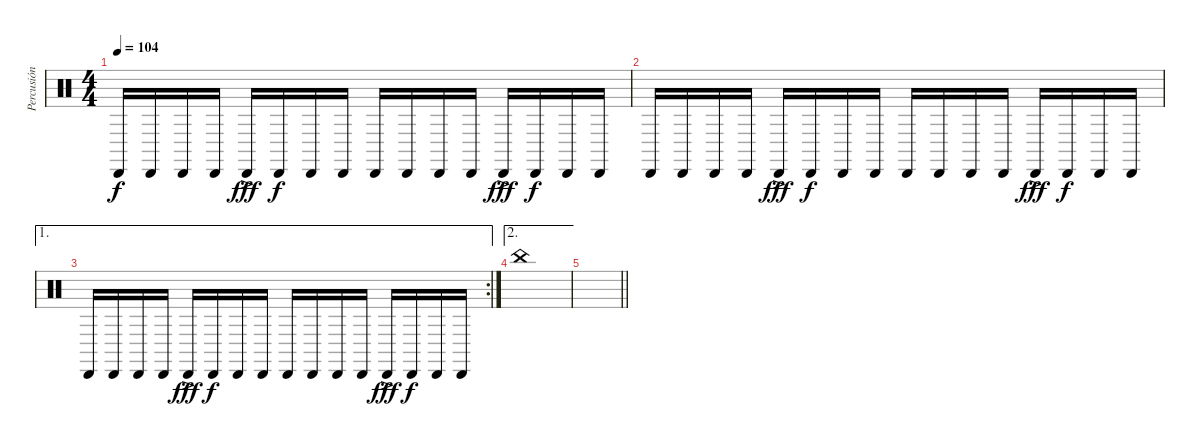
\track ("Percusión" "Percusión") {instrument percussion}
\staff {score}
\articulation defaults
\ts (4 4)
\tempo 104
\clef neutral
\ks c "Cabasa (hit)".16{dy f} "Cabasa (hit)".16 "Cabasa (hit)".16 "Cabasa (hit)".16 "Cabasa (hit)"{ac}.16{dy fff} "Cabasa (hit)".16{dy f} "Cabasa (hit)".16 "Cabasa (hit)".16 "Cabasa (hit)".16 "Cabasa (hit)".16 "Cabasa (hit)".16 "Cabasa (hit)".16 "Cabasa (hit)"{ac}.16{dy fff} "Cabasa (hit)".16{dy f} "Cabasa (hit)".16 "Cabasa (hit)".16
|
"Cabasa (hit)".16 "Cabasa (hit)".16 "Cabasa (hit)".16 "Cabasa (hit)".16 "Cabasa (hit)"{ac}.16{dy fff} "Cabasa (hit)".16{dy f} "Cabasa (hit)".16 "Cabasa (hit)".16 "Cabasa (hit)".16 "Cabasa (hit)".16 "Cabasa (hit)".16 "Cabasa (hit)".16 "Cabasa (hit)"{ac}.16{dy fff} "Cabasa (hit)".16{dy f} "Cabasa (hit)".16 "Cabasa (hit)".16 |
\ae 1
\rc 2 "Cabasa (hit)".16 "Cabasa (hit)".16 "Cabasa (hit)".16 "Cabasa (hit)".16 "Cabasa (hit)"{ac}.16{dy fff} "Cabasa (hit)".16{dy f} "Cabasa (hit)".16 "Cabasa (hit)".16 "Cabasa (hit)".16 "Cabasa (hit)".16 "Cabasa (hit)".16 "Cabasa (hit)".16 "Cabasa (hit)"{ac}.16{dy fff} "Cabasa (hit)".16{dy f} "Cabasa (hit)".16 "Cabasa (hit)".16
|
\ae 2 "China (hit)".1
|
\barLineRight lightlight
